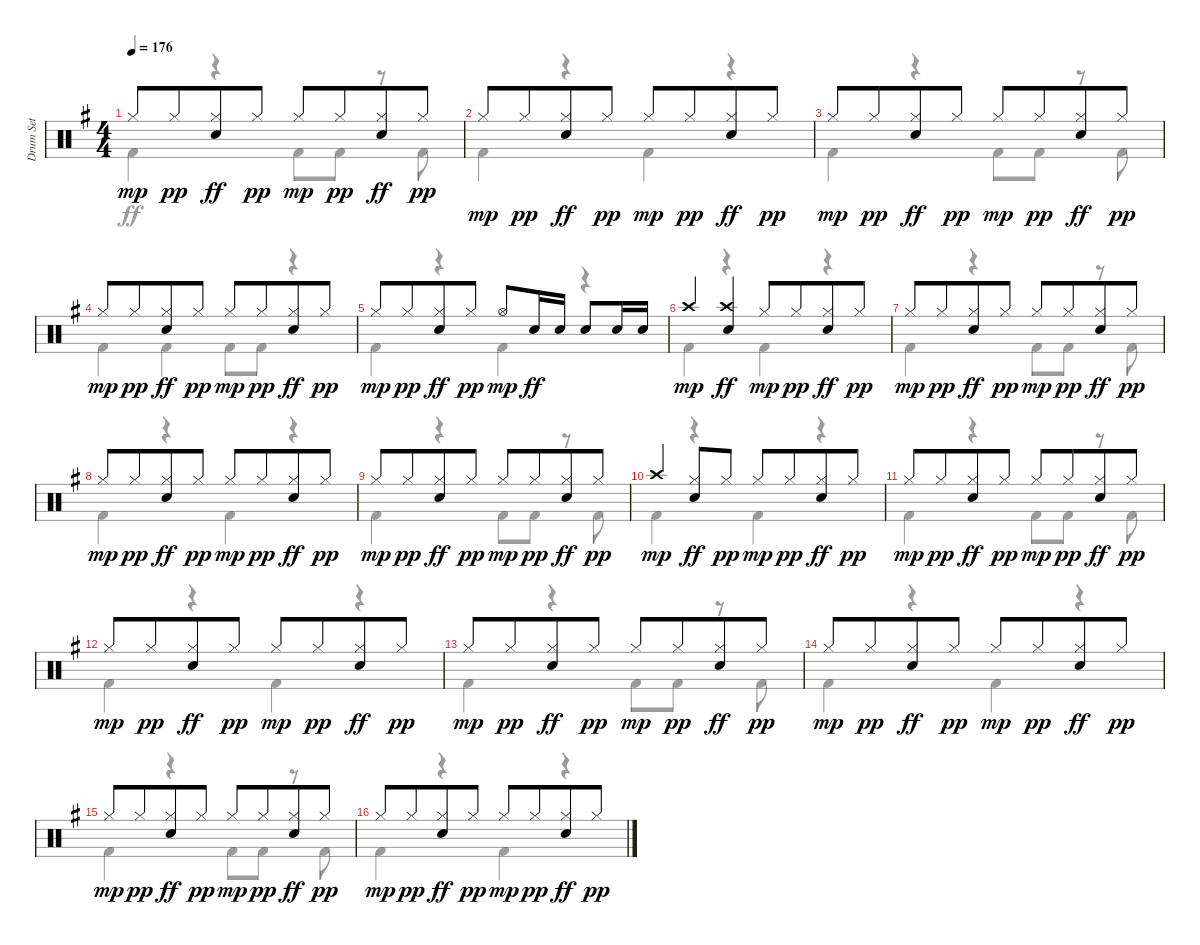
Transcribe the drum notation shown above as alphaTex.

\track ("Drum Set" "Drum Set") {instrument percussion}
\staff {score}
\articulation defaults
\voice
\ts (4 4)
\tempo 176
\clef neutral
\ks eminor "Hi-Hat (closed)".8{dy mp} "Hi-Hat (closed)".8{dy pp beam merge}
("Hi-Hat (closed)" "Electric Snare (hit)").8{dy ff} "Hi-Hat (closed)".8{dy pp} "Hi-Hat (closed)".8{dy mp} "Hi-Hat (closed)".8{dy pp beam merge} ("Hi-Hat (closed)" "Electric Snare (hit)").8{dy ff} "Hi-Hat (closed)".8{dy pp} |
"Hi-Hat (closed)".8{dy mp} "Hi-Hat (closed)".8{dy pp beam merge} ("Hi-Hat (closed)" "Electric Snare (hit)").8{dy ff} "Hi-Hat (closed)".8{dy pp} "Hi-Hat (closed)".8{dy mp} "Hi-Hat (closed)".8{dy pp beam merge} ("Hi-Hat (closed)" "Electric Snare (hit)").8{dy ff} "Hi-Hat (closed)".8{dy pp} |
"Hi-Hat (closed)".8{dy mp} "Hi-Hat (closed)".8{dy pp beam merge} ("Hi-Hat (closed)" "Electric Snare (hit)").8{dy ff} "Hi-Hat (closed)".8{dy pp} "Hi-Hat (closed)".8{dy mp} "Hi-Hat (closed)".8{dy pp beam merge} ("Hi-Hat (closed)" "Electric Snare (hit)").8{dy ff} "Hi-Hat (closed)".8{dy pp} |
"Hi-Hat (closed)".8{dy mp} "Hi-Hat (closed)".8{dy pp beam merge} ("Hi-Hat (closed)" "Electric Snare (hit)").8{dy ff} "Hi-Hat (closed)".8{dy pp} "Hi-Hat (closed)".8{dy mp} "Hi-Hat (closed)".8{dy pp beam merge} ("Hi-Hat (closed)" "Electric Snare (hit)").8{dy ff} "Hi-Hat (closed)".8{dy pp} |
"Hi-Hat (closed)".8{dy mp} "Hi-Hat (closed)".8{dy pp beam merge} ("Hi-Hat (closed)" "Electric Snare (hit)").8{dy ff} "Hi-Hat (closed)".8{dy pp} "Hi-Hat (open)".8{dy mp} "Electric Snare (hit)".16{dy ff} "Electric Snare (hit)".16 "Electric Snare (hit)".8 "Electric Snare (hit)".16 "Electric Snare (hit)".16 |
"Crash high (hit)".4{dy mp} ("Crash high (hit)" "Electric Snare (hit)").4{dy ff} "Hi-Hat (closed)".8{dy mp} "Hi-Hat (closed)".8{dy pp beam merge} ("Hi-Hat (closed)" "Electric Snare (hit)").8{dy ff} "Hi-Hat (closed)".8{dy pp} |
"Hi-Hat (closed)".8{dy mp} "Hi-Hat (closed)".8{dy pp beam merge} ("Hi-Hat (closed)" "Electric Snare (hit)").8{dy ff} "Hi-Hat (closed)".8{dy pp} "Hi-Hat (closed)".8{dy mp} "Hi-Hat (closed)".8{dy pp beam merge} ("Hi-Hat (closed)" "Electric Snare (hit)").8{dy ff} "Hi-Hat (closed)".8{dy pp} |
"Hi-Hat (closed)".8{dy mp} "Hi-Hat (closed)".8{dy pp beam merge} ("Hi-Hat (closed)" "Electric Snare (hit)").8{dy ff} "Hi-Hat (closed)".8{dy pp} "Hi-Hat (closed)".8{dy mp} "Hi-Hat (closed)".8{dy pp beam merge} ("Hi-Hat (closed)" "Electric Snare (hit)").8{dy ff} "Hi-Hat (closed)".8{dy pp} |
"Hi-Hat (closed)".8{dy mp} "Hi-Hat (closed)".8{dy pp beam merge} ("Hi-Hat (closed)" "Electric Snare (hit)").8{dy ff} "Hi-Hat (closed)".8{dy pp} "Hi-Hat (closed)".8{dy mp} "Hi-Hat (closed)".8{dy pp beam merge} ("Hi-Hat (closed)" "Electric Snare (hit)").8{dy ff} "Hi-Hat (closed)".8{dy pp} |
"Crash high (hit)".4{dy mp beam merge} ("Hi-Hat (closed)" "Electric Snare (hit)").8{dy ff} "Hi-Hat (closed)".8{dy pp} "Hi-Hat (closed)".8{dy mp} "Hi-Hat (closed)".8{dy pp beam merge} ("Hi-Hat (closed)" "Electric Snare (hit)").8{dy ff} "Hi-Hat (closed)".8{dy pp} |
"Hi-Hat (closed)".8{dy mp} "Hi-Hat (closed)".8{dy pp beam merge} ("Hi-Hat (closed)" "Electric Snare (hit)").8{dy ff} "Hi-Hat (closed)".8{dy pp} "Hi-Hat (closed)".8{dy mp} "Hi-Hat (closed)".8{dy pp beam merge} ("Hi-Hat (closed)" "Electric Snare (hit)").8{dy ff} "Hi-Hat (closed)".8{dy pp} |
"Hi-Hat (closed)".8{dy mp} "Hi-Hat (closed)".8{dy pp beam merge} ("Hi-Hat (closed)" "Electric Snare (hit)").8{dy ff} "Hi-Hat (closed)".8{dy pp} "Hi-Hat (closed)".8{dy mp} "Hi-Hat (closed)".8{dy pp beam merge} ("Hi-Hat (closed)" "Electric Snare (hit)").8{dy ff} "Hi-Hat (closed)".8{dy pp} |
"Hi-Hat (closed)".8{dy mp} "Hi-Hat (closed)".8{dy pp beam merge} ("Hi-Hat (closed)" "Electric Snare (hit)").8{dy ff} "Hi-Hat (closed)".8{dy pp} "Hi-Hat (closed)".8{dy mp} "Hi-Hat (closed)".8{dy pp beam merge} ("Hi-Hat (closed)" "Electric Snare (hit)").8{dy ff} "Hi-Hat (closed)".8{dy pp} |
"Hi-Hat (closed)".8{dy mp} "Hi-Hat (closed)".8{dy pp beam merge} ("Hi-Hat (closed)" "Electric Snare (hit)").8{dy ff} "Hi-Hat (closed)".8{dy pp} "Hi-Hat (closed)".8{dy mp} "Hi-Hat (closed)".8{dy pp beam merge} ("Hi-Hat (closed)" "Electric Snare (hit)").8{dy ff} "Hi-Hat (closed)".8{dy pp} |
"Hi-Hat (closed)".8{dy mp} "Hi-Hat (closed)".8{dy pp beam merge} ("Hi-Hat (closed)" "Electric Snare (hit)").8{dy ff} "Hi-Hat (closed)".8{dy pp} "Hi-Hat (closed)".8{dy mp} "Hi-Hat (closed)".8{dy pp beam merge} ("Hi-Hat (closed)" "Electric Snare (hit)").8{dy ff} "Hi-Hat (closed)".8{dy pp} |
"Hi-Hat (closed)".8{dy mp} "Hi-Hat (closed)".8{dy pp beam merge} ("Hi-Hat (closed)" "Electric Snare (hit)").8{dy ff} "Hi-Hat (closed)".8{dy pp} "Hi-Hat (closed)".8{dy mp} "Hi-Hat (closed)".8{dy pp beam merge} ("Hi-Hat (closed)" "Electric Snare (hit)").8{dy ff} "Hi-Hat (closed)".8{dy pp}
\voice
\clef neutral
\ottava regular
\simile none
\ks eminor "Kick (hit) 2".4{dy ff}
r.4 "Kick (hit) 2".8 "Kick (hit) 2".8 r.8 "Kick (hit) 2".8 |
"Kick (hit) 2".4 r.4 "Kick (hit) 2".4 r.4 |
"Kick (hit) 2".4 r.4 "Kick (hit) 2".8 "Kick (hit) 2".8 r.8 "Kick (hit) 2".8 |
"Kick (hit) 2".4 "Kick (hit) 2".4 "Kick (hit) 2".8 "Kick (hit) 2".8 r.4 |
"Kick (hit) 2".4 r.4 "Kick (hit) 2".4 r.4 |
"Kick (hit) 2".4 r.4 "Kick (hit) 2".4 r.4 |
"Kick (hit) 2".4 r.4 "Kick (hit) 2".8 "Kick (hit) 2".8 r.8 "Kick (hit) 2".8 |
"Kick (hit) 2".4 r.4 "Kick (hit) 2".4 r.4 |
"Kick (hit) 2".4 r.4 "Kick (hit) 2".8 "Kick (hit) 2".8 r.8 "Kick (hit) 2".8 |
"Kick (hit) 2".4 r.4 "Kick (hit) 2".4 r.4 |
"Kick (hit) 2".4 r.4 "Kick (hit) 2".8 "Kick (hit) 2".8 r.8 "Kick (hit) 2".8 |
"Kick (hit) 2".4 r.4 "Kick (hit) 2".4 r.4 |
"Kick (hit) 2".4 r.4 "Kick (hit) 2".8 "Kick (hit) 2".8 r.8 "Kick (hit) 2".8 |
"Kick (hit) 2".4 r.4 "Kick (hit) 2".4 r.4 |
"Kick (hit) 2".4 r.4 "Kick (hit) 2".8 "Kick (hit) 2".8 r.8 "Kick (hit) 2".8 |
"Kick (hit) 2".4 r.4 "Kick (hit) 2".4 r.4
